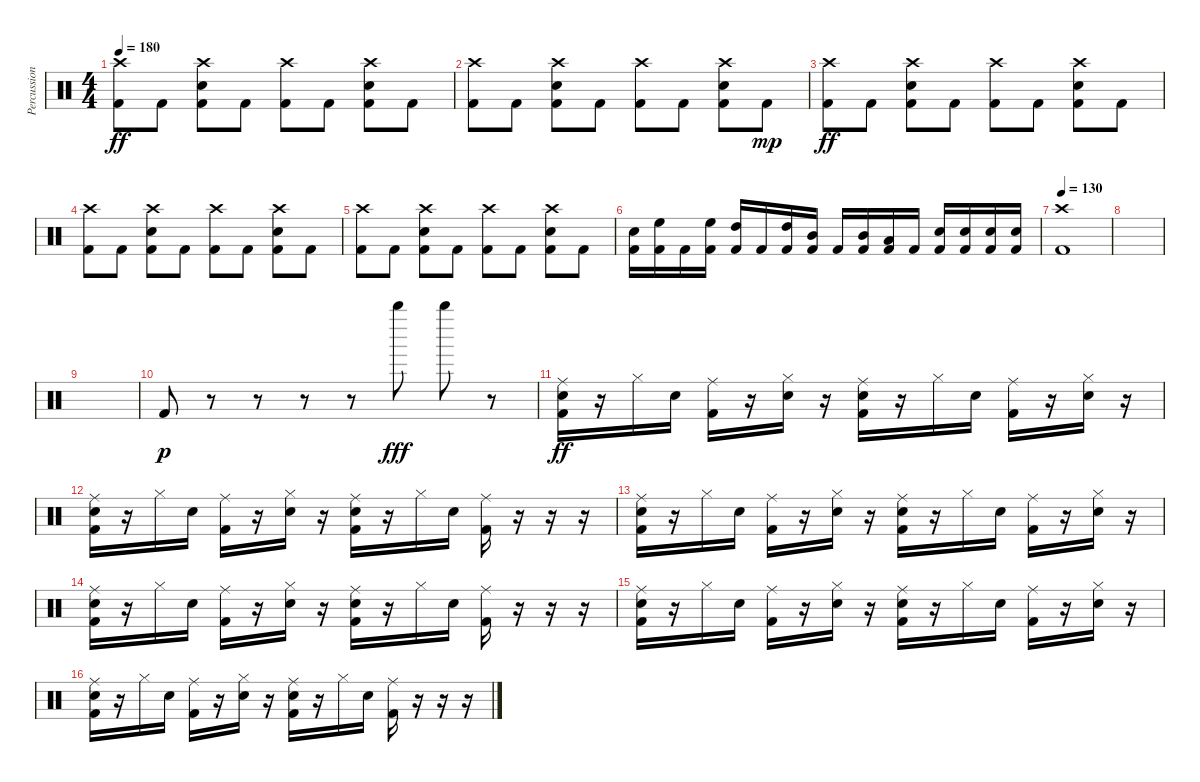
\track ("Percussion" "Percussion") {instrument percussion}
\staff {score}
\articulation defaults
\ts (4 4)
\tempo 180
\clef neutral
\ks c
("Crash high (hit)" "Kick (hit) 2").8{dy ff} "Kick (hit) 2".8 ("Crash high (hit)" "Electric Snare (hit)" "Kick (hit) 2").8 "Kick (hit) 2".8 ("Crash high (hit)" "Kick (hit) 2").8 "Kick (hit) 2".8 ("Crash high (hit)" "Electric Snare (hit)" "Kick (hit) 2").8 "Kick (hit) 2".8 |
("Crash high (hit)" "Kick (hit) 2").8 "Kick (hit) 2".8 ("Crash high (hit)" "Electric Snare (hit)" "Kick (hit) 2").8 "Kick (hit) 2".8 ("Crash high (hit)" "Kick (hit) 2").8 "Kick (hit) 2".8 ("Crash high (hit)" "Electric Snare (hit)" "Kick (hit) 2").8 "Kick (hit) 2".8{dy mp} |
("Crash high (hit)" "Kick (hit) 2").8{dy ff} "Kick (hit) 2".8 ("Crash high (hit)" "Electric Snare (hit)" "Kick (hit) 2").8 "Kick (hit) 2".8 ("Crash high (hit)" "Kick (hit) 2").8 "Kick (hit) 2".8 ("Crash high (hit)" "Electric Snare (hit)" "Kick (hit) 2").8 "Kick (hit) 2".8 |
("Crash high (hit)" "Kick (hit) 2").8 "Kick (hit) 2".8 ("Crash high (hit)" "Electric Snare (hit)" "Kick (hit) 2").8 "Kick (hit) 2".8 ("Crash high (hit)" "Kick (hit) 2").8 "Kick (hit) 2".8 ("Crash high (hit)" "Electric Snare (hit)" "Kick (hit) 2").8 "Kick (hit) 2".8 |
("Crash high (hit)" "Kick (hit) 2").8 "Kick (hit) 2".8 ("Crash high (hit)" "Electric Snare (hit)" "Kick (hit) 2").8 "Kick (hit) 2".8 ("Crash high (hit)" "Kick (hit) 2").8 "Kick (hit) 2".8 ("Crash high (hit)" "Electric Snare (hit)" "Kick (hit) 2").8 "Kick (hit) 2".8 |
("Kick (hit) 2" "Electric Snare (hit)").16 ("Kick (hit) 2" "High Floor Tom (hit)").16 "Kick (hit) 2".16 ("Kick (hit) 2" "High Floor Tom (hit)").16 ("Kick (hit) 2" "High Tom (hit)").16 "Kick (hit) 2".16 ("Kick (hit) 2" "High Tom (hit)").16 ("Kick (hit) 2" "Mid Tom (hit)").16 "Kick (hit) 2".16 ("Kick (hit) 2" "Mid Tom (hit)").16 ("Kick (hit) 2" "Low Tom (hit)").16 "Kick (hit) 2".16 ("Kick (hit) 2" "Electric Snare (hit)").16 ("Kick (hit) 2" "Electric Snare (hit)").16 ("Kick (hit) 2" "Electric Snare (hit)").16 ("Kick (hit) 2" "Electric Snare (hit)").16 |
\tempo 130
("Kick (hit) 2" "Crash high (hit)").1 |
|
|
"Kick (hit) 2".8{dy p} r.8 r.8 r.8 r.8 "Whistle high (hit)".8{dy fff} "Whistle high (hit)".8 r.8 |
("Kick (hit) 2" "Electric Snare (hit)" "Ride (middle)").16{dy ff} r.16 "Hi-Hat (closed)".16 "Electric Snare (hit)".16 ("Kick (hit) 2" "Ride (middle)").16 r.16 ("Hi-Hat (closed)" "Electric Snare (hit)").16 r.16 ("Kick (hit) 2" "Electric Snare (hit)" "Ride (middle)").16 r.16 "Hi-Hat (closed)".16 "Electric Snare (hit)".16 ("Kick (hit) 2" "Ride (middle)").16 r.16 ("Hi-Hat (closed)" "Electric Snare (hit)").16 r.16 |
("Kick (hit) 2" "Electric Snare (hit)" "Ride (middle)").16 r.16 "Hi-Hat (closed)".16 "Electric Snare (hit)".16 ("Kick (hit) 2" "Ride (middle)").16 r.16 ("Hi-Hat (closed)" "Electric Snare (hit)").16 r.16 ("Kick (hit) 2" "Electric Snare (hit)" "Ride (middle)").16 r.16 "Hi-Hat (closed)".16 "Electric Snare (hit)".16 ("Kick (hit) 2" "Ride (middle)").16 r.16 r.16 r.16 |
("Kick (hit) 2" "Electric Snare (hit)" "Ride (middle)").16 r.16 "Hi-Hat (closed)".16 "Electric Snare (hit)".16 ("Kick (hit) 2" "Ride (middle)").16 r.16 ("Hi-Hat (closed)" "Electric Snare (hit)").16 r.16 ("Kick (hit) 2" "Electric Snare (hit)" "Ride (middle)").16 r.16 "Hi-Hat (closed)".16 "Electric Snare (hit)".16 ("Kick (hit) 2" "Ride (middle)").16 r.16 ("Hi-Hat (closed)" "Electric Snare (hit)").16 r.16 |
("Kick (hit) 2" "Electric Snare (hit)" "Ride (middle)").16 r.16 "Hi-Hat (closed)".16 "Electric Snare (hit)".16 ("Kick (hit) 2" "Ride (middle)").16 r.16 ("Hi-Hat (closed)" "Electric Snare (hit)").16 r.16 ("Kick (hit) 2" "Electric Snare (hit)" "Ride (middle)").16 r.16 "Hi-Hat (closed)".16 "Electric Snare (hit)".16 ("Kick (hit) 2" "Ride (middle)").16 r.16 r.16 r.16 |
("Kick (hit) 2" "Electric Snare (hit)" "Ride (middle)").16 r.16 "Hi-Hat (closed)".16 "Electric Snare (hit)".16 ("Kick (hit) 2" "Ride (middle)").16 r.16 ("Hi-Hat (closed)" "Electric Snare (hit)").16 r.16 ("Kick (hit) 2" "Electric Snare (hit)" "Ride (middle)").16 r.16 "Hi-Hat (closed)".16 "Electric Snare (hit)".16 ("Kick (hit) 2" "Ride (middle)").16 r.16 ("Hi-Hat (closed)" "Electric Snare (hit)").16 r.16 |
("Kick (hit) 2" "Electric Snare (hit)" "Ride (middle)").16 r.16 "Hi-Hat (closed)".16 "Electric Snare (hit)".16 ("Kick (hit) 2" "Ride (middle)").16 r.16 ("Hi-Hat (closed)" "Electric Snare (hit)").16 r.16 ("Kick (hit) 2" "Electric Snare (hit)" "Ride (middle)").16 r.16 "Hi-Hat (closed)".16 "Electric Snare (hit)".16 ("Kick (hit) 2" "Ride (middle)").16 r.16 r.16 r.16
